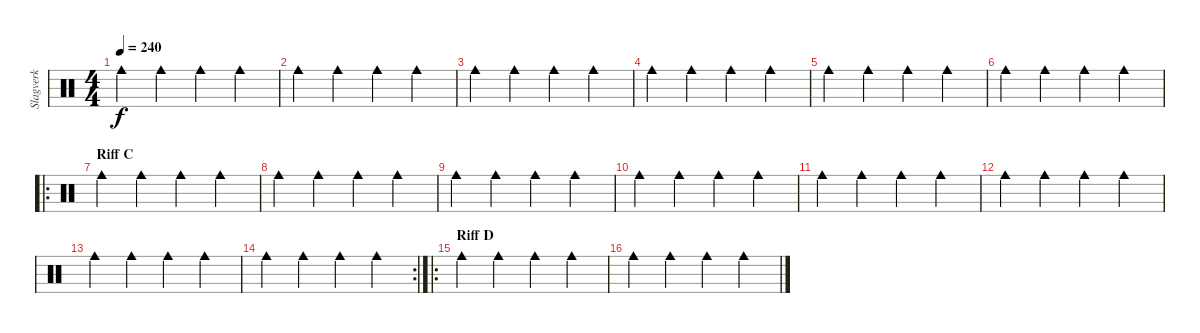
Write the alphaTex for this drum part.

\track ("Slagverk" "Slagverk") {instrument percussion}
\staff {score}
\articulation defaults
\ts (4 4)
\tempo 240
\clef neutral
\ks c "Cowbell medium (hit)".4{dy f} "Cowbell medium (hit)".4 "Cowbell medium (hit)".4 "Cowbell medium (hit)".4
|
"Cowbell medium (hit)".4 "Cowbell medium (hit)".4 "Cowbell medium (hit)".4 "Cowbell medium (hit)".4 |
"Cowbell medium (hit)".4 "Cowbell medium (hit)".4 "Cowbell medium (hit)".4 "Cowbell medium (hit)".4 |
"Cowbell medium (hit)".4 "Cowbell medium (hit)".4 "Cowbell medium (hit)".4 "Cowbell medium (hit)".4 |
"Cowbell medium (hit)".4 "Cowbell medium (hit)".4 "Cowbell medium (hit)".4 "Cowbell medium (hit)".4 |
"Cowbell medium (hit)".4 "Cowbell medium (hit)".4 "Cowbell medium (hit)".4 "Cowbell medium (hit)".4 |
\ro
\section ("" "Riff C")
"Cowbell medium (hit)".4 "Cowbell medium (hit)".4 "Cowbell medium (hit)".4 "Cowbell medium (hit)".4 |
"Cowbell medium (hit)".4 "Cowbell medium (hit)".4 "Cowbell medium (hit)".4 "Cowbell medium (hit)".4 |
"Cowbell medium (hit)".4 "Cowbell medium (hit)".4 "Cowbell medium (hit)".4 "Cowbell medium (hit)".4 |
"Cowbell medium (hit)".4 "Cowbell medium (hit)".4 "Cowbell medium (hit)".4 "Cowbell medium (hit)".4 |
"Cowbell medium (hit)".4 "Cowbell medium (hit)".4 "Cowbell medium (hit)".4 "Cowbell medium (hit)".4 |
"Cowbell medium (hit)".4 "Cowbell medium (hit)".4 "Cowbell medium (hit)".4 "Cowbell medium (hit)".4 |
"Cowbell medium (hit)".4 "Cowbell medium (hit)".4 "Cowbell medium (hit)".4 "Cowbell medium (hit)".4 |
\rc 2 "Cowbell medium (hit)".4 "Cowbell medium (hit)".4 "Cowbell medium (hit)".4 "Cowbell medium (hit)".4
|
\ro
\section ("" "Riff D")
"Cowbell medium (hit)".4 "Cowbell medium (hit)".4 "Cowbell medium (hit)".4 "Cowbell medium (hit)".4 |
"Cowbell medium (hit)".4 "Cowbell medium (hit)".4 "Cowbell medium (hit)".4 "Cowbell medium (hit)".4
